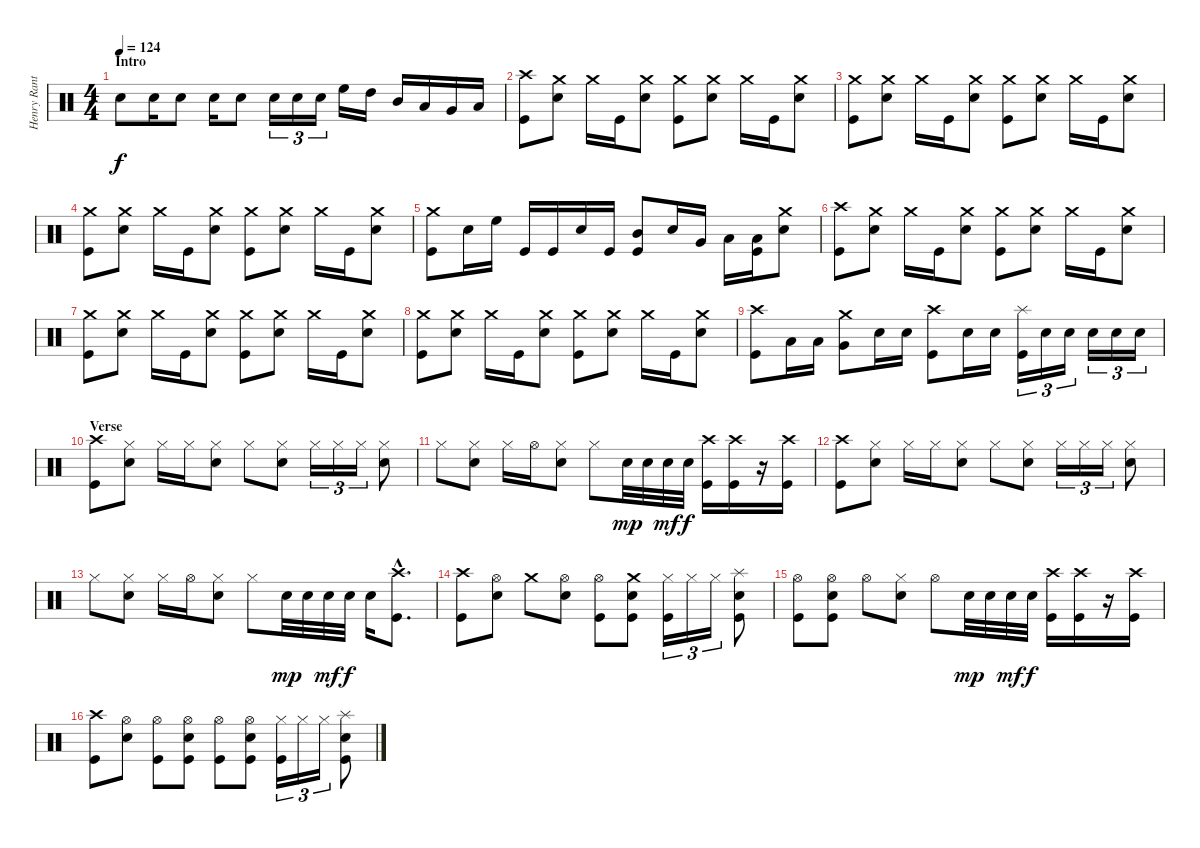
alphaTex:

\track ("Henry Ranta" "Henry Rant") {instrument percussion}
\staff {score}
\articulation defaults
\ts (4 4)
\section ("" "Intro")
\tempo 124
\clef neutral
\ks c "Snare (hit) 2".8{dy f volume 10} "Snare (hit) 2".16 "Snare (hit) 2".8 "Snare (hit) 2".16 "Snare (hit) 2".8 "Snare (hit) 2".16{tu (3 2)} "Snare (hit) 2".16{tu (3 2)} "Snare (hit) 2".16{tu (3 2)} "High Floor Tom (hit)".16 "High Tom (hit)".16 "Mid Tom (hit)".16 "Low Tom (hit)".16 "Very Low Tom (hit)".16 "Low Floor Tom (hit)".16
|
("Crash high (hit)" "Kick (hit)").8{volume 14} ("Crash medium (hit)" "Electric Snare (hit)").8 "Crash medium (hit)".16 "Kick (hit)".16 ("Crash medium (hit)" "Electric Snare (hit)").8 ("Crash medium (hit)" "Kick (hit)").8 ("Crash medium (hit)" "Electric Snare (hit)").8 "Crash medium (hit)".16 "Kick (hit)".16 ("Crash medium (hit)" "Electric Snare (hit)").8 |
("Crash medium (hit)" "Kick (hit)").8 ("Crash medium (hit)" "Electric Snare (hit)").8 "Crash medium (hit)".16 "Kick (hit)".16 ("Crash medium (hit)" "Electric Snare (hit)").8 ("Crash medium (hit)" "Kick (hit)").8 ("Crash medium (hit)" "Electric Snare (hit)").8 "Crash medium (hit)".16 "Kick (hit)".16 ("Crash medium (hit)" "Electric Snare (hit)").8 |
("Crash medium (hit)" "Kick (hit)").8 ("Crash medium (hit)" "Electric Snare (hit)").8 "Crash medium (hit)".16 "Kick (hit)".16 ("Crash medium (hit)" "Electric Snare (hit)").8 ("Crash medium (hit)" "Kick (hit)").8 ("Crash medium (hit)" "Electric Snare (hit)").8 "Crash medium (hit)".16 "Kick (hit)".16 ("Crash medium (hit)" "Electric Snare (hit)").8 |
("Crash medium (hit)" "Kick (hit)").8 "Electric Snare (hit)".16 "High Floor Tom (hit)".16 "Kick (hit)".16 "Kick (hit)".16 "Electric Snare (hit)".16 "Kick (hit)".16 ("Mid Tom (hit)" "Kick (hit)").8 "Electric Snare (hit)".16 "Very Low Tom (hit)".16 "Low Tom (hit)".16 ("Low Tom (hit)" "Kick (hit)").16 ("Crash medium (hit)" "Electric Snare (hit)").8 |
("Crash high (hit)" "Kick (hit)").8 ("Crash medium (hit)" "Electric Snare (hit)").8 "Crash medium (hit)".16 "Kick (hit)".16 ("Crash medium (hit)" "Electric Snare (hit)").8 ("Crash medium (hit)" "Kick (hit)").8 ("Crash medium (hit)" "Electric Snare (hit)").8 "Crash medium (hit)".16 "Kick (hit)".16 ("Crash medium (hit)" "Electric Snare (hit)").8 |
("Crash medium (hit)" "Kick (hit)").8 ("Crash medium (hit)" "Electric Snare (hit)").8 "Crash medium (hit)".16 "Kick (hit)".16 ("Crash medium (hit)" "Electric Snare (hit)").8 ("Crash medium (hit)" "Kick (hit)").8 ("Crash medium (hit)" "Electric Snare (hit)").8 "Crash medium (hit)".16 "Kick (hit)".16 ("Crash medium (hit)" "Electric Snare (hit)").8 |
("Crash medium (hit)" "Kick (hit)").8 ("Crash medium (hit)" "Electric Snare (hit)").8 "Crash medium (hit)".16 "Kick (hit)".16 ("Crash medium (hit)" "Electric Snare (hit)").8 ("Crash medium (hit)" "Kick (hit)").8 ("Crash medium (hit)" "Electric Snare (hit)").8 "Crash medium (hit)".16 "Kick (hit)".16 ("Crash medium (hit)" "Electric Snare (hit)").8 |
("Crash high (hit)" "Kick (hit)").8 "Low Tom (hit)".16 "Low Tom (hit)".16 ("Crash medium (hit)" "Very Low Tom (hit)").8 "Electric Snare (hit)".16 "Electric Snare (hit)".16 ("Crash high (hit)" "Kick (hit)").8 "Electric Snare (hit)".16 "Electric Snare (hit)".16 ("Splash (hit)" "Kick (hit)").16{tu (3 2)} "Electric Snare (hit)".16{tu (3 2)} "Electric Snare (hit)".16{tu (3 2)} "Electric Snare (hit)".16{tu (3 2)} "Electric Snare (hit)".16{tu (3 2)} "Electric Snare (hit)".16{tu (3 2)} |
\section ("" "Verse")
("Crash high (hit)" "Kick (hit)").8 ("Hi-Hat (closed)" "Electric Snare (hit)").8 "Hi-Hat (closed)".16 "Hi-Hat (closed)".16 ("Hi-Hat (closed)" "Electric Snare (hit)").8 "Hi-Hat (closed)".8 ("Hi-Hat (closed)" "Electric Snare (hit)").8 "Hi-Hat (closed)".16{tu (3 2)} "Hi-Hat (closed)".16{tu (3 2)} "Hi-Hat (closed)".16{tu (3 2)} ("Hi-Hat (closed)" "Electric Snare (hit)").8 |
"Hi-Hat (closed)".8 ("Hi-Hat (closed)" "Electric Snare (hit)").8 "Hi-Hat (closed)".16 "Hi-Hat (open)".16 ("Hi-Hat (closed)" "Electric Snare (hit)").8 "Hi-Hat (closed)".8 "Electric Snare (hit)".32{dy mp} "Electric Snare (hit)".32 "Electric Snare (hit)".32{dy mf} "Electric Snare (hit)".32{dy f} ("Crash high (hit)" "Kick (hit)").16 ("Crash high (hit)" "Kick (hit)").16 r.16 ("Crash high (hit)" "Kick (hit)").16 |
("Crash high (hit)" "Kick (hit)").8 ("Hi-Hat (closed)" "Electric Snare (hit)").8 "Hi-Hat (closed)".16 "Hi-Hat (closed)".16 ("Hi-Hat (closed)" "Electric Snare (hit)").8 "Hi-Hat (closed)".8 ("Hi-Hat (closed)" "Electric Snare (hit)").8 "Hi-Hat (closed)".16{tu (3 2)} "Hi-Hat (closed)".16{tu (3 2)} "Hi-Hat (closed)".16{tu (3 2)} ("Hi-Hat (closed)" "Electric Snare (hit)").8 |
"Hi-Hat (closed)".8 ("Hi-Hat (closed)" "Electric Snare (hit)").8 "Hi-Hat (closed)".16 "Hi-Hat (open)".16 ("Hi-Hat (closed)" "Electric Snare (hit)").8 "Hi-Hat (closed)".8 "Electric Snare (hit)".32{dy mp} "Electric Snare (hit)".32 "Electric Snare (hit)".32{dy mf} "Electric Snare (hit)".32{dy f} "Electric Snare (hit)".16 ("Crash high (hit)"{hac} "Kick (hit)"{hac}).8{d} |
("Crash high (hit)" "Kick (hit)").8 ("Hi-Hat (open)" "Electric Snare (hit)").8 "Crash medium (hit)".8 ("Hi-Hat (open)" "Electric Snare (hit)").8 ("Hi-Hat (open)" "Kick (hit)").8 ("Crash medium (hit)" "Electric Snare (hit)" "Kick (hit)").8 ("Hi-Hat (closed)" "Kick (hit)").16{tu (3 2)} "Hi-Hat (closed)".16{tu (3 2)} "Hi-Hat (closed)".16{tu (3 2)} ("Splash (hit)" "Electric Snare (hit)" "Kick (hit)").8 |
("Hi-Hat (open)" "Kick (hit)").8 ("Hi-Hat (open)" "Electric Snare (hit)" "Kick (hit)").8 "Hi-Hat (open)".8 ("Hi-Hat (closed)" "Electric Snare (hit)").8 "Hi-Hat (open)".8 "Electric Snare (hit)".32{dy mp} "Electric Snare (hit)".32 "Electric Snare (hit)".32{dy mf} "Electric Snare (hit)".32{dy f} ("Crash high (hit)" "Kick (hit)").16 ("Crash high (hit)" "Kick (hit)").16 r.16 ("Crash high (hit)" "Kick (hit)").16 |
("Crash high (hit)" "Kick (hit)").8 ("Hi-Hat (open)" "Electric Snare (hit)").8 ("Hi-Hat (open)" "Kick (hit)").8 ("Hi-Hat (open)" "Electric Snare (hit)" "Kick (hit)").8 ("Hi-Hat (open)" "Kick (hit)").8 ("Hi-Hat (open)" "Electric Snare (hit)" "Kick (hit)").8 ("Hi-Hat (closed)" "Kick (hit)").16{tu (3 2)} "Hi-Hat (closed)".16{tu (3 2)} "Hi-Hat (closed)".16{tu (3 2)} ("Splash (hit)" "Electric Snare (hit)" "Kick (hit)").8
